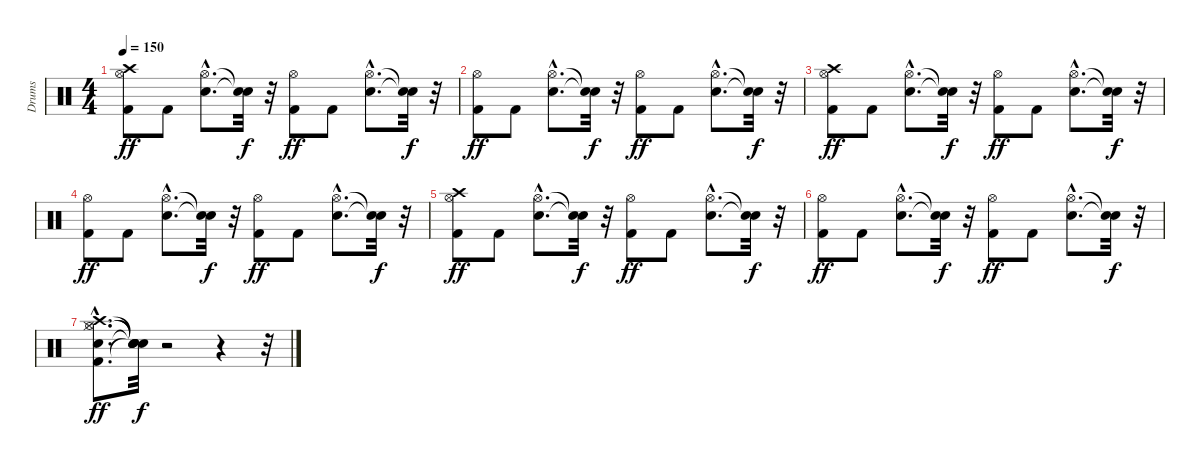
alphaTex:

\track ("Drums" "Drums") {instrument percussion}
\staff {score}
\articulation defaults
\ts (4 4)
\tempo 150
\clef neutral
\ks c
("Kick (hit) 2" "Hi-Hat (open)" "Crash high (hit)").8{dy ff} "Kick (hit) 2".8 ("Snare (hit) 2"{hac} "Hi-Hat (open)"{hac}).8{d} ("Snare (hit)"{t} "Snare (hit)"{t}).32{dy f} r.32 ("Kick (hit) 2" "Hi-Hat (open)").8{dy ff} "Kick (hit) 2".8 ("Snare (hit) 2"{hac} "Hi-Hat (open)"{hac}).8{d} ("Snare (hit)"{t} "Snare (hit)"{t}).32{dy f} r.32 |
("Kick (hit) 2" "Hi-Hat (open)").8{dy ff} "Kick (hit) 2".8 ("Snare (hit) 2"{hac} "Hi-Hat (open)"{hac}).8{d} ("Snare (hit)"{t} "Snare (hit)"{t}).32{dy f} r.32 ("Kick (hit) 2" "Hi-Hat (open)").8{dy ff} "Kick (hit) 2".8 ("Snare (hit) 2"{hac} "Hi-Hat (open)"{hac}).8{d} ("Snare (hit)"{t} "Snare (hit)"{t}).32{dy f} r.32 |
("Kick (hit) 2" "Hi-Hat (open)" "Crash high (hit)").8{dy ff} "Kick (hit) 2".8 ("Snare (hit) 2"{hac} "Hi-Hat (open)"{hac}).8{d} ("Snare (hit)"{t} "Snare (hit)"{t}).32{dy f} r.32 ("Kick (hit) 2" "Hi-Hat (open)").8{dy ff} "Kick (hit) 2".8 ("Snare (hit) 2"{hac} "Hi-Hat (open)"{hac}).8{d} ("Snare (hit)"{t} "Snare (hit)"{t}).32{dy f} r.32 |
("Kick (hit) 2" "Hi-Hat (open)").8{dy ff} "Kick (hit) 2".8 ("Snare (hit) 2"{hac} "Hi-Hat (open)"{hac}).8{d} ("Snare (hit)"{t} "Snare (hit)"{t}).32{dy f} r.32 ("Kick (hit) 2" "Hi-Hat (open)").8{dy ff} "Kick (hit) 2".8 ("Snare (hit) 2"{hac} "Hi-Hat (open)"{hac}).8{d} ("Snare (hit)"{t} "Snare (hit)"{t}).32{dy f} r.32 |
("Kick (hit) 2" "Hi-Hat (open)" "Crash high (hit)").8{dy ff} "Kick (hit) 2".8 ("Snare (hit) 2"{hac} "Hi-Hat (open)"{hac}).8{d} ("Snare (hit)"{t} "Snare (hit)"{t}).32{dy f} r.32 ("Kick (hit) 2" "Hi-Hat (open)").8{dy ff} "Kick (hit) 2".8 ("Snare (hit) 2"{hac} "Hi-Hat (open)"{hac}).8{d} ("Snare (hit)"{t} "Snare (hit)"{t}).32{dy f} r.32 |
("Kick (hit) 2" "Hi-Hat (open)").8{dy ff} "Kick (hit) 2".8 ("Snare (hit) 2"{hac} "Hi-Hat (open)"{hac}).8{d} ("Snare (hit)"{t} "Snare (hit)"{t}).32{dy f} r.32 ("Kick (hit) 2" "Hi-Hat (open)").8{dy ff} "Kick (hit) 2".8 ("Snare (hit) 2"{hac} "Hi-Hat (open)"{hac}).8{d} ("Snare (hit)"{t} "Snare (hit)"{t}).32{dy f} r.32 |
("Kick (hit) 2"{hac} "Snare (hit) 2"{hac} "Hi-Hat (closed)"{hac} "Hi-Hat (open)"{hac} "Crash high (hit)"{hac}).8{d dy ff} ("Snare (hit)"{t} "Snare (hit)"{t} "Snare (hit)"{t} "Snare (hit)"{t} "Snare (hit)"{t}).32{dy f} r.2 r.4 r.32
